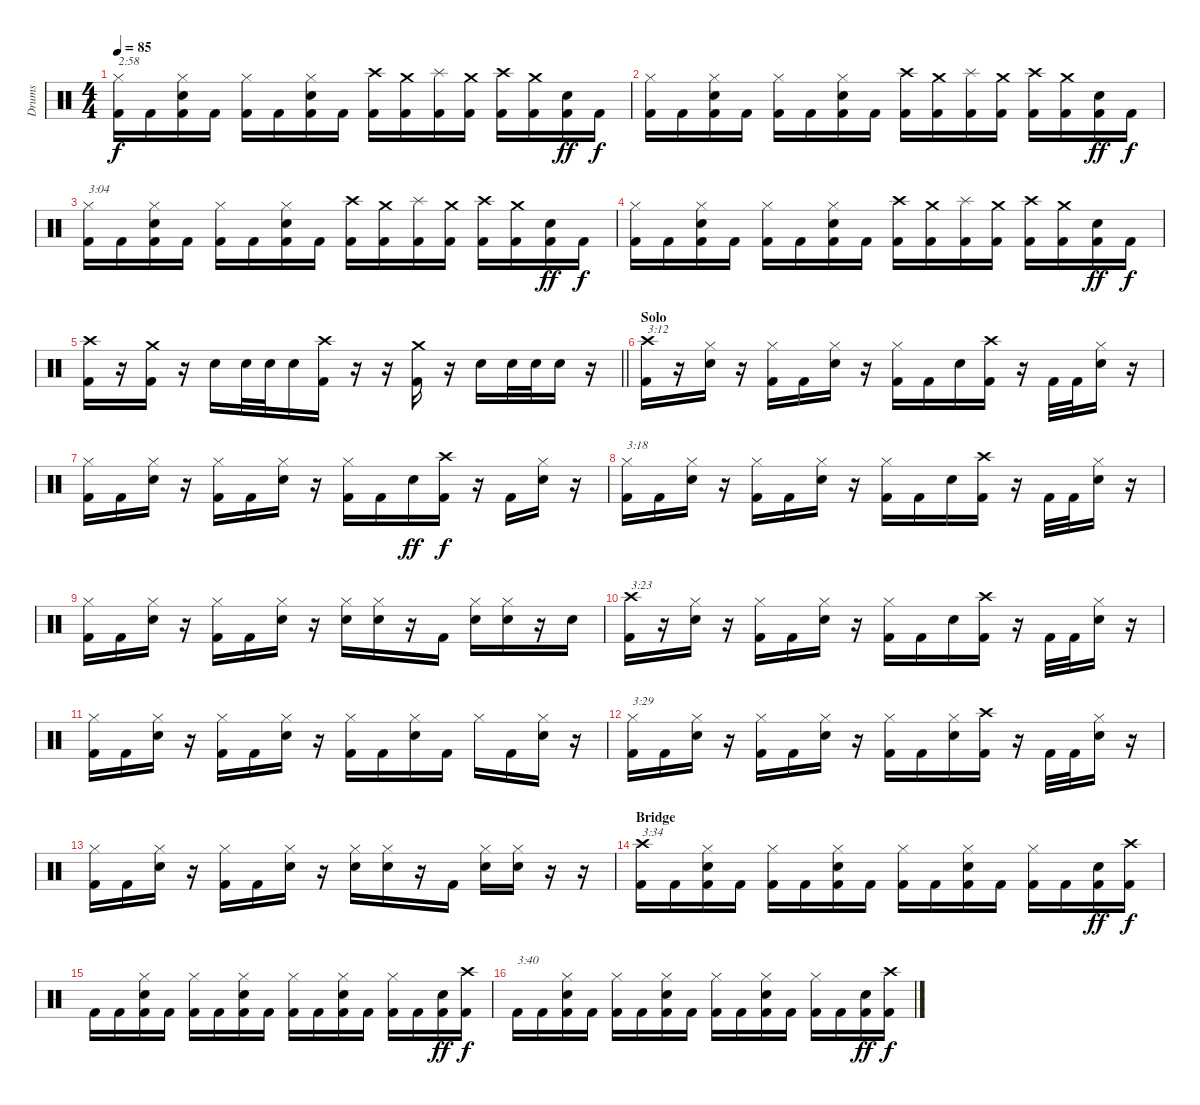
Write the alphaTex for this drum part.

\track ("Drums" "Drums") {instrument percussion}
\staff {score}
\articulation defaults
\ts (4 4)
\tempo 85
\clef neutral
\ks c
("Hi-Hat (closed)" "Kick (hit) 2").16{txt "2:58" dy f} "Kick (hit) 2".16 ("Hi-Hat (closed)" "Snare (hit) 2" "Kick (hit) 2").16 "Kick (hit) 2".16 ("Hi-Hat (closed)" "Kick (hit) 2").16 "Kick (hit) 2".16 ("Hi-Hat (closed)" "Snare (hit) 2" "Kick (hit) 2").16 "Kick (hit) 2".16 ("Crash high (hit)" "Kick (hit) 2").16 ("Crash medium (hit)" "Kick (hit) 2").16 ("Splash (hit)" "Kick (hit) 2").16 ("Crash medium (hit)" "Kick (hit) 2").16 ("Crash high (hit)" "Kick (hit) 2").16 ("Crash medium (hit)" "Kick (hit) 2").16 ("Snare (hit) 2" "Kick (hit) 2").16{dy ff} "Kick (hit) 2".16{dy f} |
("Hi-Hat (closed)" "Kick (hit) 2").16 "Kick (hit) 2".16 ("Hi-Hat (closed)" "Snare (hit) 2" "Kick (hit) 2").16 "Kick (hit) 2".16 ("Hi-Hat (closed)" "Kick (hit) 2").16 "Kick (hit) 2".16 ("Hi-Hat (closed)" "Snare (hit) 2" "Kick (hit) 2").16 "Kick (hit) 2".16 ("Crash high (hit)" "Kick (hit) 2").16 ("Crash medium (hit)" "Kick (hit) 2").16 ("Splash (hit)" "Kick (hit) 2").16 ("Crash medium (hit)" "Kick (hit) 2").16 ("Crash high (hit)" "Kick (hit) 2").16 ("Crash medium (hit)" "Kick (hit) 2").16 ("Snare (hit) 2" "Kick (hit) 2").16{dy ff} "Kick (hit) 2".16{dy f} |
("Hi-Hat (closed)" "Kick (hit) 2").16{txt "3:04"} "Kick (hit) 2".16 ("Hi-Hat (closed)" "Snare (hit) 2" "Kick (hit) 2").16 "Kick (hit) 2".16 ("Hi-Hat (closed)" "Kick (hit) 2").16 "Kick (hit) 2".16 ("Hi-Hat (closed)" "Snare (hit) 2" "Kick (hit) 2").16 "Kick (hit) 2".16 ("Crash high (hit)" "Kick (hit) 2").16 ("Crash medium (hit)" "Kick (hit) 2").16 ("Splash (hit)" "Kick (hit) 2").16 ("Crash medium (hit)" "Kick (hit) 2").16 ("Crash high (hit)" "Kick (hit) 2").16 ("Crash medium (hit)" "Kick (hit) 2").16 ("Snare (hit) 2" "Kick (hit) 2").16{dy ff} "Kick (hit) 2".16{dy f} |
("Hi-Hat (closed)" "Kick (hit) 2").16 "Kick (hit) 2".16 ("Hi-Hat (closed)" "Snare (hit) 2" "Kick (hit) 2").16 "Kick (hit) 2".16 ("Hi-Hat (closed)" "Kick (hit) 2").16 "Kick (hit) 2".16 ("Hi-Hat (closed)" "Snare (hit) 2" "Kick (hit) 2").16 "Kick (hit) 2".16 ("Crash high (hit)" "Kick (hit) 2").16 ("Crash medium (hit)" "Kick (hit) 2").16 ("Splash (hit)" "Kick (hit) 2").16 ("Crash medium (hit)" "Kick (hit) 2").16 ("Crash high (hit)" "Kick (hit) 2").16 ("Crash medium (hit)" "Kick (hit) 2").16 ("Snare (hit) 2" "Kick (hit) 2").16{dy ff} "Kick (hit) 2".16{dy f} |
\barLineRight lightlight
("Crash high (hit)" "Kick (hit) 2").16 r.16 ("Crash medium (hit)" "Kick (hit) 2").16 r.16 "Snare (hit) 2".16 "Snare (hit) 2".32 "Snare (hit) 2".32 "Snare (hit) 2".16 ("Crash high (hit)" "Kick (hit) 2").16 r.16 r.16 ("Crash medium (hit)" "Kick (hit) 2").16 r.16 "Snare (hit) 2".16 "Snare (hit) 2".32 "Snare (hit) 2".32 "Snare (hit) 2".16 r.16 |
\section ("" "Solo")
("Crash high (hit)" "Kick (hit) 2").16{txt "3:12"} r.16 ("Hi-Hat (closed)" "Snare (hit) 2").16 r.16 ("Hi-Hat (closed)" "Kick (hit) 2").16 "Kick (hit) 2".16 ("Hi-Hat (closed)" "Snare (hit) 2").16 r.16 ("Hi-Hat (closed)" "Kick (hit) 2").16 "Kick (hit) 2".16 "Snare (hit) 2".16 ("Crash high (hit)" "Kick (hit) 2").16 r.16 "Kick (hit) 2".32 "Kick (hit) 2".32 ("Hi-Hat (closed)" "Snare (hit) 2").16 r.16 |
("Hi-Hat (closed)" "Kick (hit) 2").16 "Kick (hit) 2".16 ("Hi-Hat (closed)" "Snare (hit) 2").16 r.16 ("Hi-Hat (closed)" "Kick (hit) 2").16 "Kick (hit) 2".16 ("Hi-Hat (closed)" "Snare (hit) 2").16 r.16 ("Hi-Hat (closed)" "Kick (hit) 2").16 "Kick (hit) 2".16 "Snare (hit) 2".16{dy ff} ("Crash high (hit)" "Kick (hit) 2").16{dy f} r.16 "Kick (hit) 2".16 ("Hi-Hat (closed)" "Snare (hit) 2").16 r.16 |
("Hi-Hat (closed)" "Kick (hit) 2").16{txt "3:18"} "Kick (hit) 2".16 ("Hi-Hat (closed)" "Snare (hit) 2").16 r.16 ("Hi-Hat (closed)" "Kick (hit) 2").16 "Kick (hit) 2".16 ("Hi-Hat (closed)" "Snare (hit) 2").16 r.16 ("Hi-Hat (closed)" "Kick (hit) 2").16 "Kick (hit) 2".16 "Snare (hit) 2".16 ("Crash high (hit)" "Kick (hit) 2").16 r.16 "Kick (hit) 2".32 "Kick (hit) 2".32 ("Hi-Hat (closed)" "Snare (hit) 2").16 r.16 |
("Hi-Hat (closed)" "Kick (hit) 2").16 "Kick (hit) 2".16 ("Hi-Hat (closed)" "Snare (hit) 2").16 r.16 ("Hi-Hat (closed)" "Kick (hit) 2").16 "Kick (hit) 2".16 ("Hi-Hat (closed)" "Snare (hit) 2").16 r.16 ("Hi-Hat (closed)" "Snare (hit) 2").16 ("Hi-Hat (closed)" "Snare (hit) 2").16 r.16 "Kick (hit) 2".16 ("Hi-Hat (closed)" "Snare (hit) 2").16 ("Hi-Hat (closed)" "Snare (hit) 2").16 r.16 "Snare (hit) 2".16 |
("Crash high (hit)" "Kick (hit) 2").16{txt "3:23"} r.16 ("Hi-Hat (closed)" "Snare (hit) 2").16 r.16 ("Hi-Hat (closed)" "Kick (hit) 2").16 "Kick (hit) 2".16 ("Hi-Hat (closed)" "Snare (hit) 2").16 r.16 ("Hi-Hat (closed)" "Kick (hit) 2").16 "Kick (hit) 2".16 "Snare (hit) 2".16 ("Crash high (hit)" "Kick (hit) 2").16 r.16 "Kick (hit) 2".32 "Kick (hit) 2".32 ("Hi-Hat (closed)" "Snare (hit) 2").16 r.16 |
("Hi-Hat (closed)" "Kick (hit) 2").16 "Kick (hit) 2".16 ("Hi-Hat (closed)" "Snare (hit) 2").16 r.16 ("Hi-Hat (closed)" "Kick (hit) 2").16 "Kick (hit) 2".16 ("Hi-Hat (closed)" "Snare (hit) 2").16 r.16 ("Hi-Hat (closed)" "Kick (hit) 2").16 "Kick (hit) 2".16 ("Hi-Hat (closed)" "Snare (hit) 2").16 "Kick (hit) 2".16 "Hi-Hat (closed)".16 "Kick (hit) 2".16 ("Hi-Hat (closed)" "Snare (hit) 2").16 r.16 |
("Hi-Hat (closed)" "Kick (hit) 2").16{txt "3:29"} "Kick (hit) 2".16 ("Hi-Hat (closed)" "Snare (hit) 2").16 r.16 ("Hi-Hat (closed)" "Kick (hit) 2").16 "Kick (hit) 2".16 ("Hi-Hat (closed)" "Snare (hit) 2").16 r.16 ("Hi-Hat (closed)" "Kick (hit) 2").16 "Kick (hit) 2".16 ("Hi-Hat (closed)" "Snare (hit) 2").16 ("Crash high (hit)" "Kick (hit) 2").16 r.16 "Kick (hit) 2".32 "Kick (hit) 2".32 ("Hi-Hat (closed)" "Snare (hit) 2").16 r.16 |
("Hi-Hat (closed)" "Kick (hit) 2").16 "Kick (hit) 2".16 ("Hi-Hat (closed)" "Snare (hit) 2").16 r.16 ("Hi-Hat (closed)" "Kick (hit) 2").16 "Kick (hit) 2".16 ("Hi-Hat (closed)" "Snare (hit) 2").16 r.16 ("Hi-Hat (closed)" "Snare (hit) 2").16 ("Hi-Hat (closed)" "Snare (hit) 2").16 r.16 "Kick (hit) 2".16 ("Hi-Hat (closed)" "Snare (hit) 2").16 ("Hi-Hat (closed)" "Snare (hit) 2").16 r.16 r.16 |
\section ("" "Bridge")
("Crash high (hit)" "Kick (hit) 2").16{txt "3:34"} "Kick (hit) 2".16 ("Hi-Hat (closed)" "Snare (hit) 2" "Kick (hit) 2").16 "Kick (hit) 2".16 ("Hi-Hat (closed)" "Kick (hit) 2").16 "Kick (hit) 2".16 ("Hi-Hat (closed)" "Snare (hit) 2" "Kick (hit) 2").16 "Kick (hit) 2".16 ("Hi-Hat (closed)" "Kick (hit) 2").16 "Kick (hit) 2".16 ("Hi-Hat (closed)" "Snare (hit) 2" "Kick (hit) 2").16 "Kick (hit) 2".16 ("Hi-Hat (closed)" "Kick (hit) 2").16 "Kick (hit) 2".16 ("Snare (hit) 2" "Kick (hit) 2").16{dy ff} ("Crash high (hit)" "Kick (hit) 2").16{dy f} |
"Kick (hit) 2".16 "Kick (hit) 2".16 ("Hi-Hat (closed)" "Snare (hit) 2" "Kick (hit) 2").16 "Kick (hit) 2".16 ("Hi-Hat (closed)" "Kick (hit) 2").16 "Kick (hit) 2".16 ("Hi-Hat (closed)" "Snare (hit) 2" "Kick (hit) 2").16 "Kick (hit) 2".16 ("Hi-Hat (closed)" "Kick (hit) 2").16 "Kick (hit) 2".16 ("Hi-Hat (closed)" "Snare (hit) 2" "Kick (hit) 2").16 "Kick (hit) 2".16 ("Hi-Hat (closed)" "Kick (hit) 2").16 "Kick (hit) 2".16 ("Snare (hit) 2" "Kick (hit) 2").16{dy ff} ("Crash high (hit)" "Kick (hit) 2").16{dy f} |
"Kick (hit) 2".16{txt "3:40"} "Kick (hit) 2".16 ("Hi-Hat (closed)" "Snare (hit) 2" "Kick (hit) 2").16 "Kick (hit) 2".16 ("Hi-Hat (closed)" "Kick (hit) 2").16 "Kick (hit) 2".16 ("Hi-Hat (closed)" "Snare (hit) 2" "Kick (hit) 2").16 "Kick (hit) 2".16 ("Hi-Hat (closed)" "Kick (hit) 2").16 "Kick (hit) 2".16 ("Hi-Hat (closed)" "Snare (hit) 2" "Kick (hit) 2").16 "Kick (hit) 2".16 ("Hi-Hat (closed)" "Kick (hit) 2").16 "Kick (hit) 2".16 ("Snare (hit) 2" "Kick (hit) 2").16{dy ff} ("Crash high (hit)" "Kick (hit) 2").16{dy f}
